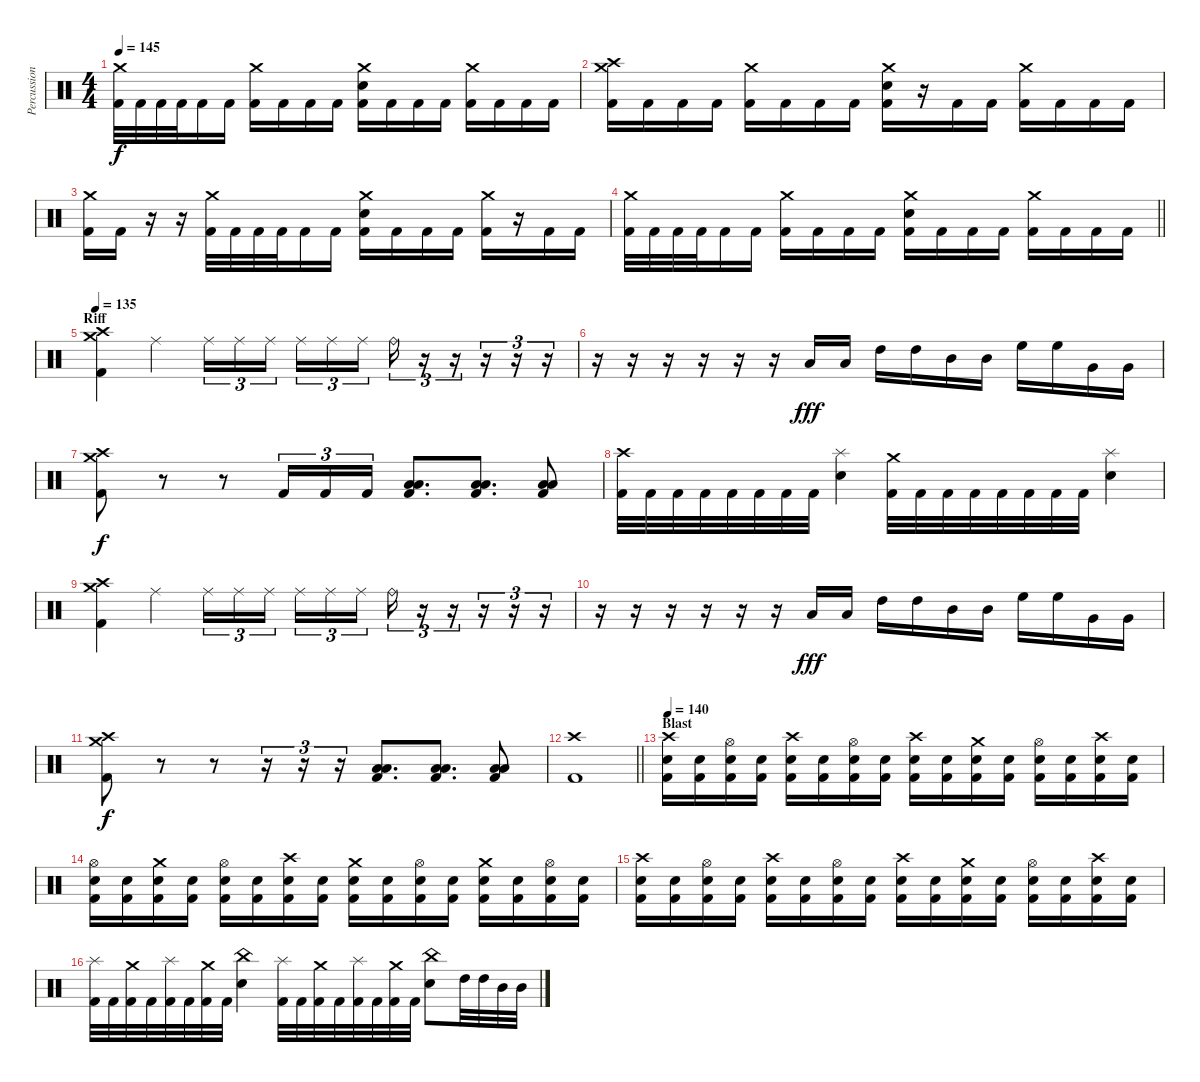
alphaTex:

\track ("Percussion" "Percussion") {instrument percussion}
\staff {score}
\articulation defaults
\ts (4 4)
\tempo 145
\clef neutral
\ks c
("Crash medium (hit)" "Kick (hit) 2").32{dy f} "Kick (hit) 2".32 "Kick (hit) 2".32 "Kick (hit) 2".32 "Kick (hit) 2".16 "Kick (hit) 2".16 ("Crash medium (hit)" "Kick (hit) 2").16 "Kick (hit) 2".16 "Kick (hit) 2".16 "Kick (hit) 2".16 ("Crash medium (hit)" "Electric Snare (hit)" "Kick (hit) 2").16 "Kick (hit) 2".16 "Kick (hit) 2".16 "Kick (hit) 2".16 ("Crash medium (hit)" "Kick (hit) 2").16 "Kick (hit) 2".16 "Kick (hit) 2".16 "Kick (hit) 2".16 |
("Crash high (hit)" "Crash medium (hit)" "Kick (hit) 2").16 "Kick (hit) 2".16 "Kick (hit) 2".16 "Kick (hit) 2".16 ("Crash medium (hit)" "Kick (hit) 2").16 "Kick (hit) 2".16 "Kick (hit) 2".16 "Kick (hit) 2".16 ("Crash medium (hit)" "Electric Snare (hit)" "Kick (hit) 2").16 r.16 "Kick (hit) 2".16 "Kick (hit) 2".16 ("Crash medium (hit)" "Kick (hit) 2").16 "Kick (hit) 2".16 "Kick (hit) 2".16 "Kick (hit) 2".16 |
("Crash medium (hit)" "Kick (hit) 2").16 "Kick (hit) 2".16 r.16 r.16 ("Crash medium (hit)" "Kick (hit) 2").32 "Kick (hit) 2".32 "Kick (hit) 2".32 "Kick (hit) 2".32 "Kick (hit) 2".16 "Kick (hit) 2".16 ("Crash medium (hit)" "Electric Snare (hit)" "Kick (hit) 2").16 "Kick (hit) 2".16 "Kick (hit) 2".16 "Kick (hit) 2".16 ("Crash medium (hit)" "Kick (hit) 2").16 r.16 "Kick (hit) 2".16 "Kick (hit) 2".16 |
\barLineRight lightlight
("Crash medium (hit)" "Kick (hit) 2").32 "Kick (hit) 2".32 "Kick (hit) 2".32 "Kick (hit) 2".32 "Kick (hit) 2".16 "Kick (hit) 2".16 ("Crash medium (hit)" "Kick (hit) 2").16 "Kick (hit) 2".16 "Kick (hit) 2".16 "Kick (hit) 2".16 ("Crash medium (hit)" "Electric Snare (hit)" "Kick (hit) 2").16 "Kick (hit) 2".16 "Kick (hit) 2".16 "Kick (hit) 2".16 ("Crash medium (hit)" "Kick (hit) 2").16 "Kick (hit) 2".16 "Kick (hit) 2".16 "Kick (hit) 2".16 |
\section ("" "Riff")
\tempo 135
("Crash high (hit)" "Crash medium (hit)" "Kick (hit) 2").4 "Ride (middle)".4 "Ride (middle)".16{tu (3 2)} "Ride (middle)".16{tu (3 2)} "Ride (middle)".16{tu (3 2) beam splitsecondary} "Ride (middle)".16{tu (3 2)} "Ride (middle)".16{tu (3 2)} "Ride (middle)".16{tu (3 2)} "Ride (bell)".16{tu (3 2)} r.16{tu (3 2)} r.16{tu (3 2)} r.16{tu (3 2)} r.16{tu (3 2)} r.16{tu (3 2)} |
r.16 r.16 r.16 r.16 r.16 r.16 "Low Tom (hit)".16{dy fff} "Low Tom (hit)".16 "High Tom (hit)".16 "High Tom (hit)".16 "Mid Tom (hit)".16 "Mid Tom (hit)".16 "High Floor Tom (hit)".16 "High Floor Tom (hit)".16 "Very Low Tom (hit)".16 "Very Low Tom (hit)".16 |
("Crash high (hit)" "Crash medium (hit)" "Kick (hit) 2").8{dy f} r.8 r.8 "Kick (hit) 2".16{tu (3 2)} "Kick (hit) 2".16{tu (3 2)} "Kick (hit) 2".16{tu (3 2)} ("Low Tom (hit)" "Low Floor Tom (hit)" "Kick (hit) 2").8{d} ("Low Tom (hit)" "Low Floor Tom (hit)" "Kick (hit) 2").8{d} ("Low Tom (hit)" "Low Floor Tom (hit)" "Kick (hit) 2").8 |
("Crash high (hit)" "Kick (hit) 2").32 "Kick (hit) 2".32 "Kick (hit) 2".32 "Kick (hit) 2".32 "Kick (hit) 2".32 "Kick (hit) 2".32 "Kick (hit) 2".32 "Kick (hit) 2".32 ("Splash (hit)" "Electric Snare (hit)").4 ("Crash medium (hit)" "Kick (hit) 2").32 "Kick (hit) 2".32 "Kick (hit) 2".32 "Kick (hit) 2".32 "Kick (hit) 2".32 "Kick (hit) 2".32 "Kick (hit) 2".32 "Kick (hit) 2".32 ("Splash (hit)" "Electric Snare (hit)").4 |
("Crash high (hit)" "Crash medium (hit)" "Kick (hit) 2").4 "Ride (middle)".4 "Ride (middle)".16{tu (3 2)} "Ride (middle)".16{tu (3 2)} "Ride (middle)".16{tu (3 2) beam splitsecondary} "Ride (middle)".16{tu (3 2)} "Ride (middle)".16{tu (3 2)} "Ride (middle)".16{tu (3 2)} "Ride (bell)".16{tu (3 2)} r.16{tu (3 2)} r.16{tu (3 2)} r.16{tu (3 2)} r.16{tu (3 2)} r.16{tu (3 2)} |
r.16 r.16 r.16 r.16 r.16 r.16 "Low Tom (hit)".16{dy fff} "Low Tom (hit)".16 "High Tom (hit)".16 "High Tom (hit)".16 "Mid Tom (hit)".16 "Mid Tom (hit)".16 "High Floor Tom (hit)".16 "High Floor Tom (hit)".16 "Very Low Tom (hit)".16 "Very Low Tom (hit)".16 |
("Crash high (hit)" "Crash medium (hit)" "Kick (hit) 2").8{dy f} r.8 r.8 r.16{tu (3 2)} r.16{tu (3 2)} r.16{tu (3 2)} ("Low Tom (hit)" "Low Floor Tom (hit)" "Kick (hit) 2").8{d} ("Low Tom (hit)" "Low Floor Tom (hit)" "Kick (hit) 2").8{d} ("Low Tom (hit)" "Low Floor Tom (hit)" "Kick (hit) 2").8 |
\barLineRight lightlight
("Crash high (hit)" "Kick (hit) 2").1 |
\section ("" "Blast")
\tempo 140
("Crash high (hit)" "Electric Snare (hit)" "Kick (hit) 2").16 ("Electric Snare (hit)" "Kick (hit) 2").16 ("Hi-Hat (open)" "Electric Snare (hit)" "Kick (hit) 2").16 ("Electric Snare (hit)" "Kick (hit) 2").16 ("Crash high (hit)" "Electric Snare (hit)" "Kick (hit) 2").16 ("Electric Snare (hit)" "Kick (hit) 2").16 ("Hi-Hat (open)" "Electric Snare (hit)" "Kick (hit) 2").16 ("Electric Snare (hit)" "Kick (hit) 2").16 ("Crash high (hit)" "Electric Snare (hit)" "Kick (hit) 2").16 ("Electric Snare (hit)" "Kick (hit) 2").16 ("Crash medium (hit)" "Electric Snare (hit)" "Kick (hit) 2").16 ("Electric Snare (hit)" "Kick (hit) 2").16 ("Hi-Hat (open)" "Electric Snare (hit)" "Kick (hit) 2").16 ("Electric Snare (hit)" "Kick (hit) 2").16 ("Crash high (hit)" "Electric Snare (hit)" "Kick (hit) 2").16 ("Electric Snare (hit)" "Kick (hit) 2").16 |
("Hi-Hat (open)" "Electric Snare (hit)" "Kick (hit) 2").16 ("Electric Snare (hit)" "Kick (hit) 2").16 ("Crash medium (hit)" "Electric Snare (hit)" "Kick (hit) 2").16 ("Electric Snare (hit)" "Kick (hit) 2").16 ("Hi-Hat (open)" "Electric Snare (hit)" "Kick (hit) 2").16 ("Electric Snare (hit)" "Kick (hit) 2").16 ("Crash high (hit)" "Electric Snare (hit)" "Kick (hit) 2").16 ("Electric Snare (hit)" "Kick (hit) 2").16 ("Crash medium (hit)" "Electric Snare (hit)" "Kick (hit) 2").16 ("Electric Snare (hit)" "Kick (hit) 2").16 ("Hi-Hat (open)" "Electric Snare (hit)" "Kick (hit) 2").16 ("Electric Snare (hit)" "Kick (hit) 2").16 ("Crash medium (hit)" "Electric Snare (hit)" "Kick (hit) 2").16 ("Electric Snare (hit)" "Kick (hit) 2").16 ("Hi-Hat (open)" "Electric Snare (hit)" "Kick (hit) 2").16 ("Electric Snare (hit)" "Kick (hit) 2").16 |
("Crash high (hit)" "Electric Snare (hit)" "Kick (hit) 2").16 ("Electric Snare (hit)" "Kick (hit) 2").16 ("Hi-Hat (open)" "Electric Snare (hit)" "Kick (hit) 2").16 ("Electric Snare (hit)" "Kick (hit) 2").16 ("Crash high (hit)" "Electric Snare (hit)" "Kick (hit) 2").16 ("Electric Snare (hit)" "Kick (hit) 2").16 ("Hi-Hat (open)" "Electric Snare (hit)" "Kick (hit) 2").16 ("Electric Snare (hit)" "Kick (hit) 2").16 ("Crash high (hit)" "Electric Snare (hit)" "Kick (hit) 2").16 ("Electric Snare (hit)" "Kick (hit) 2").16 ("Crash medium (hit)" "Electric Snare (hit)" "Kick (hit) 2").16 ("Electric Snare (hit)" "Kick (hit) 2").16 ("Hi-Hat (open)" "Electric Snare (hit)" "Kick (hit) 2").16 ("Electric Snare (hit)" "Kick (hit) 2").16 ("Crash high (hit)" "Electric Snare (hit)" "Kick (hit) 2").16 ("Electric Snare (hit)" "Kick (hit) 2").16 |
("Splash (hit)" "Kick (hit) 2").32 "Kick (hit) 2".32 ("Crash medium (hit)" "Kick (hit) 2").32 "Kick (hit) 2".32 ("Splash (hit)" "Kick (hit) 2").32 "Kick (hit) 2".32 ("Crash medium (hit)" "Kick (hit) 2").32 "Kick (hit) 2".32 ("China (hit)" "Electric Snare (hit)").4 ("Splash (hit)" "Kick (hit) 2").32 "Kick (hit) 2".32 ("Crash medium (hit)" "Kick (hit) 2").32 "Kick (hit) 2".32 ("Splash (hit)" "Kick (hit) 2").32 "Kick (hit) 2".32 ("Crash medium (hit)" "Kick (hit) 2").32 "Kick (hit) 2".32 ("China (hit)" "Electric Snare (hit)").8 "High Tom (hit)".32 "High Tom (hit)".32 "Mid Tom (hit)".32 "Mid Tom (hit)".32
